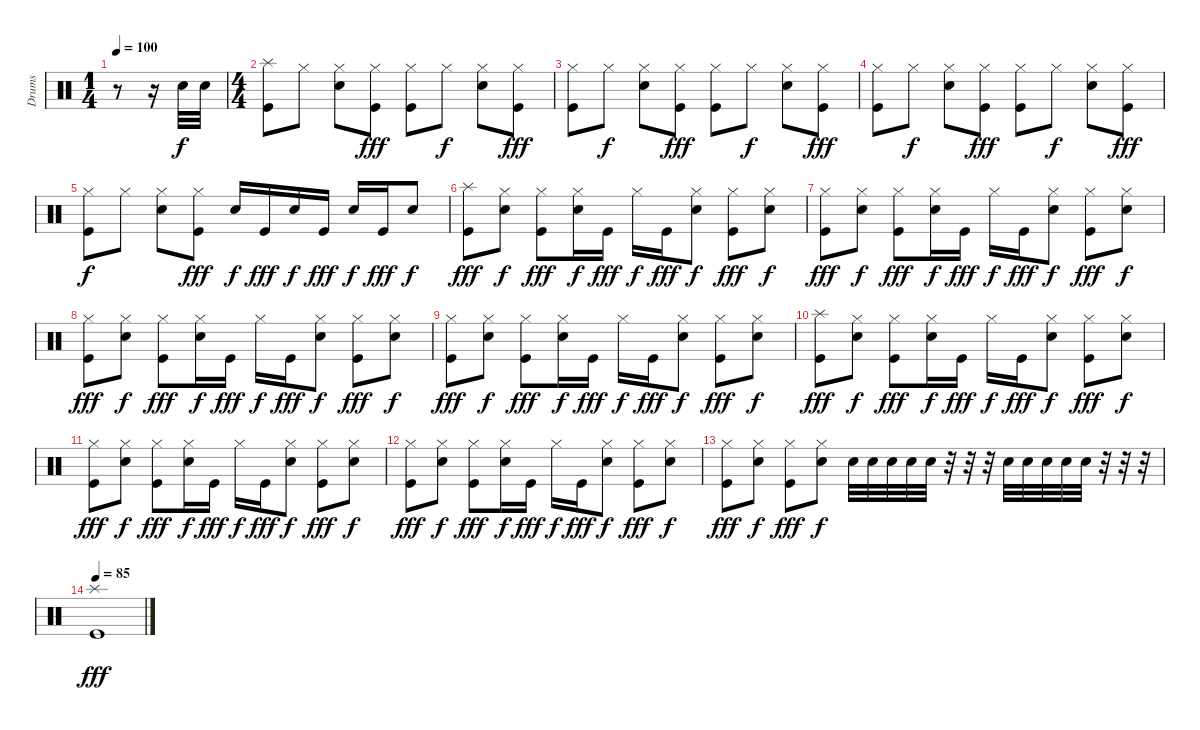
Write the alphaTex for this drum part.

\track ("Drums" "Drums") {instrument percussion}
\staff {score}
\articulation defaults
\ts (1 4)
\tempo 100
\clef neutral
\ks c
r.8{dy f} r.16 "Snare (hit) 2".32 "Snare (hit) 2".32 |
\ts (4 4)
("Splash (hit)" "Kick (hit)").8 "Hi-Hat (closed)".8 ("Hi-Hat (closed)" "Snare (hit) 2").8 ("Hi-Hat (closed)" "Kick (hit)").8{dy fff} ("Hi-Hat (closed)" "Kick (hit)").8 "Hi-Hat (closed)".8{dy f} ("Hi-Hat (closed)" "Snare (hit) 2").8 ("Hi-Hat (closed)" "Kick (hit)").8{dy fff} |
("Hi-Hat (closed)" "Kick (hit)").8 "Hi-Hat (closed)".8{dy f} ("Hi-Hat (closed)" "Snare (hit) 2").8 ("Hi-Hat (closed)" "Kick (hit)").8{dy fff} ("Hi-Hat (closed)" "Kick (hit)").8 "Hi-Hat (closed)".8{dy f} ("Hi-Hat (closed)" "Snare (hit) 2").8 ("Hi-Hat (closed)" "Kick (hit)").8{dy fff} |
("Hi-Hat (closed)" "Kick (hit)").8 "Hi-Hat (closed)".8{dy f} ("Hi-Hat (closed)" "Snare (hit) 2").8 ("Hi-Hat (closed)" "Kick (hit)").8{dy fff} ("Hi-Hat (closed)" "Kick (hit)").8 "Hi-Hat (closed)".8{dy f} ("Hi-Hat (closed)" "Snare (hit) 2").8 ("Hi-Hat (closed)" "Kick (hit)").8{dy fff} |
("Hi-Hat (closed)" "Kick (hit)").8{dy f} "Hi-Hat (closed)".8 ("Hi-Hat (closed)" "Snare (hit) 2").8 ("Hi-Hat (closed)" "Kick (hit)").8{dy fff} "Snare (hit) 2".16{dy f} "Kick (hit)".16{dy fff} "Snare (hit) 2".16{dy f} "Kick (hit)".16{dy fff} "Snare (hit) 2".16{dy f} "Kick (hit)".16{dy fff} "Snare (hit) 2".8{dy f} |
("Splash (hit)" "Kick (hit)").8{dy fff} ("Hi-Hat (closed)" "Snare (hit) 2").8{dy f} ("Hi-Hat (closed)" "Kick (hit)").8{dy fff} ("Hi-Hat (closed)" "Snare (hit) 2").16{dy f} "Kick (hit)".16{dy fff} "Hi-Hat (closed)".16{dy f} "Kick (hit)".16{dy fff} ("Hi-Hat (closed)" "Snare (hit) 2").8{dy f} ("Hi-Hat (closed)" "Kick (hit)").8{dy fff} ("Hi-Hat (closed)" "Snare (hit) 2").8{dy f} |
("Hi-Hat (closed)" "Kick (hit)").8{dy fff} ("Hi-Hat (closed)" "Snare (hit) 2").8{dy f} ("Hi-Hat (closed)" "Kick (hit)").8{dy fff} ("Hi-Hat (closed)" "Snare (hit) 2").16{dy f} "Kick (hit)".16{dy fff} "Hi-Hat (closed)".16{dy f} "Kick (hit)".16{dy fff} ("Hi-Hat (closed)" "Snare (hit) 2").8{dy f} ("Hi-Hat (closed)" "Kick (hit)").8{dy fff} ("Hi-Hat (closed)" "Snare (hit) 2").8{dy f} |
("Hi-Hat (closed)" "Kick (hit)").8{dy fff} ("Hi-Hat (closed)" "Snare (hit) 2").8{dy f} ("Hi-Hat (closed)" "Kick (hit)").8{dy fff} ("Hi-Hat (closed)" "Snare (hit) 2").16{dy f} "Kick (hit)".16{dy fff} "Hi-Hat (closed)".16{dy f} "Kick (hit)".16{dy fff} ("Hi-Hat (closed)" "Snare (hit) 2").8{dy f} ("Hi-Hat (closed)" "Kick (hit)").8{dy fff} ("Hi-Hat (closed)" "Snare (hit) 2").8{dy f} |
("Hi-Hat (closed)" "Kick (hit)").8{dy fff} ("Hi-Hat (closed)" "Snare (hit) 2").8{dy f} ("Hi-Hat (closed)" "Kick (hit)").8{dy fff} ("Hi-Hat (closed)" "Snare (hit) 2").16{dy f} "Kick (hit)".16{dy fff} "Hi-Hat (closed)".16{dy f} "Kick (hit)".16{dy fff} ("Hi-Hat (closed)" "Snare (hit) 2").8{dy f} ("Hi-Hat (closed)" "Kick (hit)").8{dy fff} ("Hi-Hat (closed)" "Snare (hit) 2").8{dy f} |
("Splash (hit)" "Kick (hit)").8{dy fff} ("Hi-Hat (closed)" "Snare (hit) 2").8{dy f} ("Hi-Hat (closed)" "Kick (hit)").8{dy fff} ("Hi-Hat (closed)" "Snare (hit) 2").16{dy f} "Kick (hit)".16{dy fff} "Hi-Hat (closed)".16{dy f} "Kick (hit)".16{dy fff} ("Hi-Hat (closed)" "Snare (hit) 2").8{dy f} ("Hi-Hat (closed)" "Kick (hit)").8{dy fff} ("Hi-Hat (closed)" "Snare (hit) 2").8{dy f} |
("Hi-Hat (closed)" "Kick (hit)").8{dy fff} ("Hi-Hat (closed)" "Snare (hit) 2").8{dy f} ("Hi-Hat (closed)" "Kick (hit)").8{dy fff} ("Hi-Hat (closed)" "Snare (hit) 2").16{dy f} "Kick (hit)".16{dy fff} "Hi-Hat (closed)".16{dy f} "Kick (hit)".16{dy fff} ("Hi-Hat (closed)" "Snare (hit) 2").8{dy f} ("Hi-Hat (closed)" "Kick (hit)").8{dy fff} ("Hi-Hat (closed)" "Snare (hit) 2").8{dy f} |
("Hi-Hat (closed)" "Kick (hit)").8{dy fff} ("Hi-Hat (closed)" "Snare (hit) 2").8{dy f} ("Hi-Hat (closed)" "Kick (hit)").8{dy fff} ("Hi-Hat (closed)" "Snare (hit) 2").16{dy f} "Kick (hit)".16{dy fff} "Hi-Hat (closed)".16{dy f} "Kick (hit)".16{dy fff} ("Hi-Hat (closed)" "Snare (hit) 2").8{dy f} ("Hi-Hat (closed)" "Kick (hit)").8{dy fff} ("Hi-Hat (closed)" "Snare (hit) 2").8{dy f} |
("Hi-Hat (closed)" "Kick (hit)").8{dy fff} ("Hi-Hat (closed)" "Snare (hit) 2").8{dy f} ("Hi-Hat (closed)" "Kick (hit)").8{dy fff} ("Hi-Hat (closed)" "Snare (hit) 2").8{dy f} "Snare (hit) 2".32 "Snare (hit) 2".32 "Snare (hit) 2".32 "Snare (hit) 2".32 "Snare (hit) 2".32 r.32 r.32 r.32 "Snare (hit) 2".32 "Snare (hit) 2".32 "Snare (hit) 2".32 "Snare (hit) 2".32 "Snare (hit) 2".32 r.32 r.32 r.32 |
\tempo 85
("Splash (hit)" "Kick (hit)").1{dy fff}
